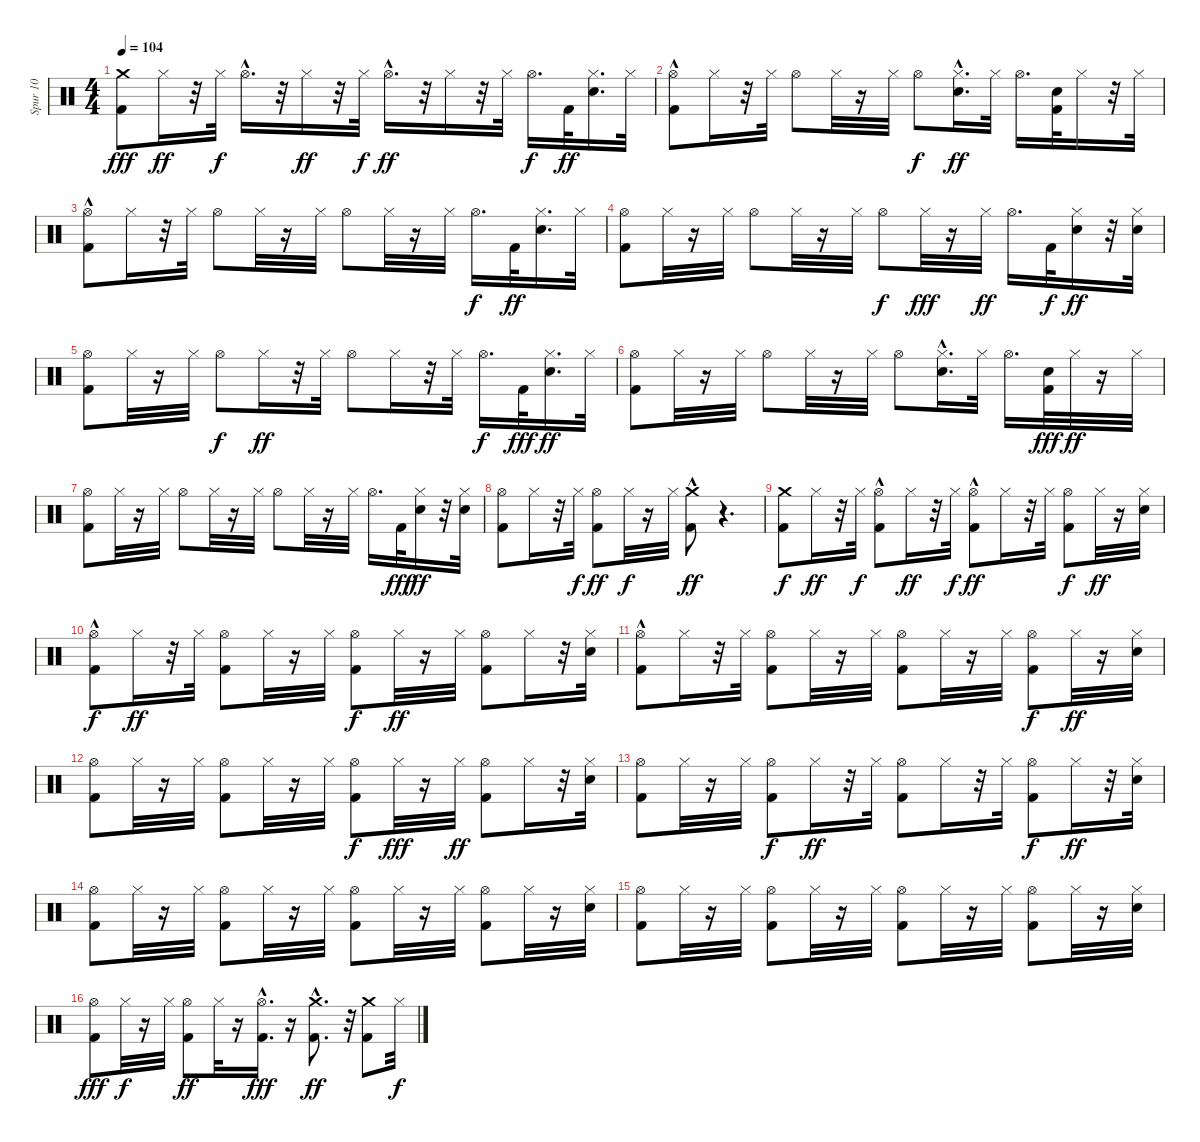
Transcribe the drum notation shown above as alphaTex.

\track ("Spur 10" "Spur 10") {instrument percussion}
\staff {score}
\articulation defaults
\ts (4 4)
\tempo 104
\clef neutral
\ks c
("Kick (hit) 2" "Crash medium (hit)").8{dy fff} "Hi-Hat (closed)".16{dy ff} r.32 "Hi-Hat (closed)".32{dy f} "Hi-Hat (open)"{hac}.16{d} r.32 "Hi-Hat (closed)".16{dy ff} r.32 "Hi-Hat (closed)".32{dy f} "Hi-Hat (open)"{hac}.16{d dy ff} r.32 "Hi-Hat (closed)".16 r.32 "Hi-Hat (closed)".32 "Hi-Hat (open)".16{d dy f} "Kick (hit) 2".32{dy ff} ("Electric Snare (hit)" "Hi-Hat (closed)").16{d} "Hi-Hat (closed)".32 |
("Kick (hit) 2" "Hi-Hat (open)"{hac}).8 "Hi-Hat (closed)".16 r.32 "Hi-Hat (closed)".32 "Hi-Hat (open)".8 "Hi-Hat (closed)".32 r.16 "Hi-Hat (closed)".32 "Hi-Hat (open)".8{dy f} ("Electric Snare (hit)"{hac} "Hi-Hat (closed)").16{d dy ff} "Hi-Hat (closed)".32 "Hi-Hat (open)".16{d} ("Electric Snare (hit)" "Kick (hit) 2").32 "Hi-Hat (closed)".16 r.32 "Hi-Hat (closed)".32 |
("Kick (hit) 2" "Hi-Hat (open)"{hac}).8 "Hi-Hat (closed)".16 r.32 "Hi-Hat (closed)".32 "Hi-Hat (open)".8 "Hi-Hat (closed)".32 r.16 "Hi-Hat (closed)".32 "Hi-Hat (open)".8 "Hi-Hat (closed)".32 r.16 "Hi-Hat (closed)".32 "Hi-Hat (open)".16{d dy f} "Kick (hit) 2".32{dy ff} ("Electric Snare (hit)" "Hi-Hat (closed)").16{d} "Hi-Hat (closed)".32 |
("Kick (hit) 2" "Hi-Hat (open)").8 "Hi-Hat (closed)".32 r.16 "Hi-Hat (closed)".32 "Hi-Hat (open)".8 "Hi-Hat (closed)".32 r.16 "Hi-Hat (closed)".32 "Hi-Hat (open)".8{dy f} "Hi-Hat (closed)".32{dy fff} r.16 "Hi-Hat (closed)".32{dy ff} "Hi-Hat (open)".16{d} "Kick (hit) 2".32{dy f} ("Electric Snare (hit)" "Hi-Hat (closed)").16{dy ff} r.32 ("Electric Snare (hit)" "Hi-Hat (closed)").32 |
("Kick (hit) 2" "Hi-Hat (open)").8 "Hi-Hat (closed)".32 r.16 "Hi-Hat (closed)".32 "Hi-Hat (open)".8{dy f} "Hi-Hat (closed)".16{dy ff} r.32 "Hi-Hat (closed)".32 "Hi-Hat (open)".8 "Hi-Hat (closed)".16 r.32 "Hi-Hat (closed)".32 "Hi-Hat (open)".16{d dy f} "Kick (hit) 2".32{dy fff} ("Electric Snare (hit)" "Hi-Hat (closed)").16{d dy ff} "Hi-Hat (closed)".32 |
("Kick (hit) 2" "Hi-Hat (open)").8 "Hi-Hat (closed)".32 r.16 "Hi-Hat (closed)".32 "Hi-Hat (open)".8 "Hi-Hat (closed)".32 r.16 "Hi-Hat (closed)".32 "Hi-Hat (open)".8 ("Electric Snare (hit)"{hac} "Hi-Hat (closed)").16{d} "Hi-Hat (closed)".32 "Hi-Hat (open)".16{d} ("Electric Snare (hit)" "Kick (hit) 2").32{dy fff} "Hi-Hat (closed)".32{dy ff} r.16 "Hi-Hat (closed)".32 |
("Kick (hit) 2" "Hi-Hat (open)").8 "Hi-Hat (closed)".32 r.16 "Hi-Hat (closed)".32 "Hi-Hat (open)".8 "Hi-Hat (closed)".32 r.16 "Hi-Hat (closed)".32 "Hi-Hat (open)".8 "Hi-Hat (closed)".32 r.16 "Hi-Hat (closed)".32 "Hi-Hat (open)".16{d} "Kick (hit) 2".32{dy fff} ("Electric Snare (hit)" "Hi-Hat (closed)").16{dy ff} r.32 ("Electric Snare (hit)" "Hi-Hat (closed)").32 |
("Kick (hit) 2" "Hi-Hat (open)").8 "Hi-Hat (closed)".16 r.32 "Hi-Hat (closed)".32{dy f} ("Kick (hit) 2" "Hi-Hat (open)").8{dy ff} "Hi-Hat (closed)".32{dy f} r.16 "Hi-Hat (closed)".32 ("Crash medium (hit)"{hac} "Kick (hit) 2").8{dy ff} r.4{d} |
("Kick (hit) 2" "Crash medium (hit)").8{dy f} "Hi-Hat (closed)".16{dy ff} r.32 "Hi-Hat (closed)".32{dy f} ("Kick (hit) 2" "Hi-Hat (open)"{hac}).8 "Hi-Hat (closed)".16{dy ff} r.32 "Hi-Hat (closed)".32{dy f} ("Kick (hit) 2" "Hi-Hat (open)"{hac}).8{dy ff} "Hi-Hat (closed)".16 r.32 "Hi-Hat (closed)".32 ("Kick (hit) 2" "Hi-Hat (open)").8{dy f} "Hi-Hat (closed)".32{dy ff} r.16 ("Electric Snare (hit)" "Hi-Hat (closed)").32 |
("Kick (hit) 2" "Hi-Hat (open)"{hac}).8{dy f} "Hi-Hat (closed)".16{dy ff} r.32 "Hi-Hat (closed)".32 ("Kick (hit) 2" "Hi-Hat (open)").8 "Hi-Hat (closed)".32 r.16 "Hi-Hat (closed)".32 ("Kick (hit) 2" "Hi-Hat (open)").8{dy f} "Hi-Hat (closed)".32{dy ff} r.16 "Hi-Hat (closed)".32 ("Kick (hit) 2" "Hi-Hat (open)").8 "Hi-Hat (closed)".16 r.32 ("Electric Snare (hit)" "Hi-Hat (closed)").32 |
("Kick (hit) 2" "Hi-Hat (open)"{hac}).8 "Hi-Hat (closed)".16 r.32 "Hi-Hat (closed)".32 ("Kick (hit) 2" "Hi-Hat (open)").8 "Hi-Hat (closed)".32 r.16 "Hi-Hat (closed)".32 ("Kick (hit) 2" "Hi-Hat (open)").8 "Hi-Hat (closed)".32 r.16 "Hi-Hat (closed)".32 ("Kick (hit) 2" "Hi-Hat (open)").8{dy f} "Hi-Hat (closed)".32{dy ff} r.16 ("Electric Snare (hit)" "Hi-Hat (closed)").32 |
("Kick (hit) 2" "Hi-Hat (open)").8 "Hi-Hat (closed)".32 r.16 "Hi-Hat (closed)".32 ("Kick (hit) 2" "Hi-Hat (open)").8 "Hi-Hat (closed)".32 r.16 "Hi-Hat (closed)".32 ("Kick (hit) 2" "Hi-Hat (open)").8{dy f} "Hi-Hat (closed)".32{dy fff} r.16 "Hi-Hat (closed)".32{dy ff} ("Kick (hit) 2" "Hi-Hat (open)").8 "Hi-Hat (closed)".16 r.32 ("Electric Snare (hit)" "Hi-Hat (closed)").32 |
("Kick (hit) 2" "Hi-Hat (open)").8 "Hi-Hat (closed)".32 r.16 "Hi-Hat (closed)".32 ("Kick (hit) 2" "Hi-Hat (open)").8{dy f} "Hi-Hat (closed)".16{dy ff} r.32 "Hi-Hat (closed)".32 ("Kick (hit) 2" "Hi-Hat (open)").8 "Hi-Hat (closed)".16 r.32 "Hi-Hat (closed)".32 ("Kick (hit) 2" "Hi-Hat (open)").8{dy f} "Hi-Hat (closed)".16{dy ff} r.32 ("Electric Snare (hit)" "Hi-Hat (closed)").32 |
("Kick (hit) 2" "Hi-Hat (open)").8 "Hi-Hat (closed)".32 r.16 "Hi-Hat (closed)".32 ("Kick (hit) 2" "Hi-Hat (open)").8 "Hi-Hat (closed)".32 r.16 "Hi-Hat (closed)".32 ("Kick (hit) 2" "Hi-Hat (open)").8 "Hi-Hat (closed)".32 r.16 "Hi-Hat (closed)".32 ("Kick (hit) 2" "Hi-Hat (open)").8 "Hi-Hat (closed)".32 r.16 ("Electric Snare (hit)" "Hi-Hat (closed)").32 |
("Kick (hit) 2" "Hi-Hat (open)").8 "Hi-Hat (closed)".32 r.16 "Hi-Hat (closed)".32 ("Kick (hit) 2" "Hi-Hat (open)").8 "Hi-Hat (closed)".32 r.16 "Hi-Hat (closed)".32 ("Kick (hit) 2" "Hi-Hat (open)").8 "Hi-Hat (closed)".32 r.16 "Hi-Hat (closed)".32 ("Kick (hit) 2" "Hi-Hat (open)").8 "Hi-Hat (closed)".32 r.16 ("Electric Snare (hit)" "Hi-Hat (closed)").32 |
("Kick (hit) 2" "Hi-Hat (open)").8{dy fff} "Hi-Hat (closed)".32{dy f} r.16 "Hi-Hat (closed)".32 ("Kick (hit) 2" "Hi-Hat (open)").8{dy ff} "Hi-Hat (closed)".32 r.16 ("Kick (hit) 2"{hac} "Hi-Hat (open)").16{d dy fff} r.16 ("Crash medium (hit)"{hac} "Kick (hit) 2"{hac}).8{d dy ff} r.32 ("Crash medium (hit)" "Kick (hit) 2").8 "Hi-Hat (closed)".32{dy f}
